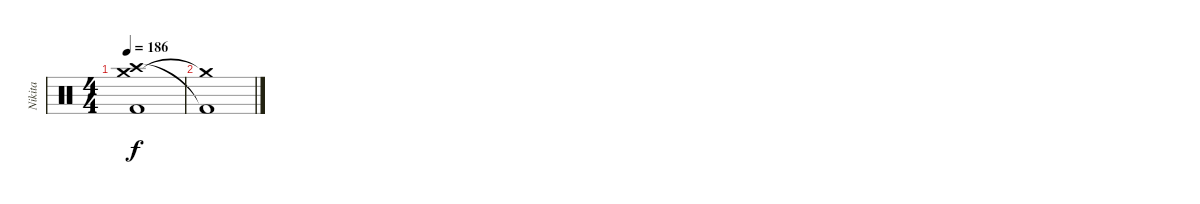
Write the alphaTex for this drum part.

\track ("Nikita" "Nikita") {instrument percussion}
\staff {score}
\articulation defaults
\ts (4 4)
\tempo 186
\clef neutral
\ks c
("Crash medium (hit)" "Crash high (hit)" "Kick (hit) 2").1{dy f volume 0} |
("Crash medium (hit)"{t} "Kick (hit) 2"{t}).1
